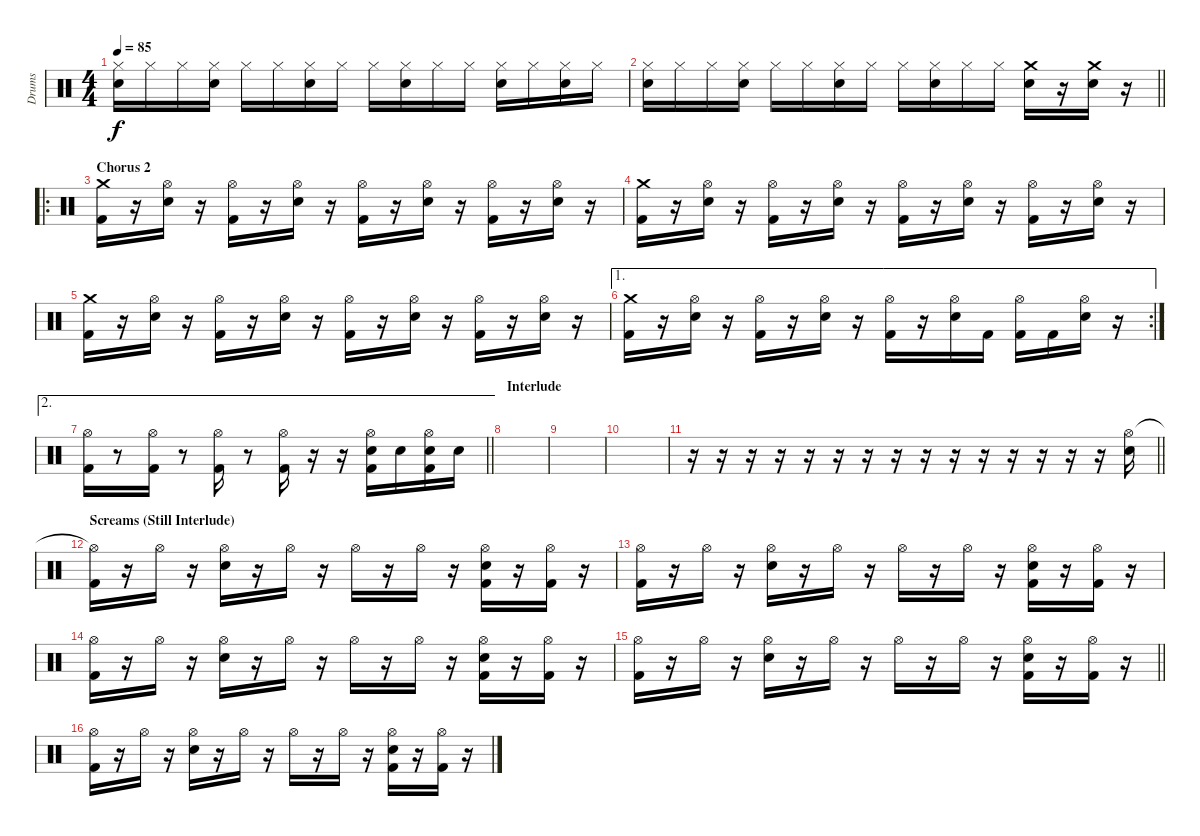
\track ("Drums" "Drums") {instrument percussion}
\staff {score}
\articulation defaults
\ts (4 4)
\tempo 85
\clef neutral
\ks c
("Hi-Hat (closed)" "Snare (hit) 2").16{dy f} "Hi-Hat (closed)".16 "Hi-Hat (closed)".16 ("Hi-Hat (closed)" "Snare (hit) 2").16 "Hi-Hat (closed)".16 "Hi-Hat (closed)".16 ("Hi-Hat (closed)" "Snare (hit) 2").16 "Hi-Hat (closed)".16 "Hi-Hat (closed)".16 ("Hi-Hat (closed)" "Snare (hit) 2").16 "Hi-Hat (closed)".16 "Hi-Hat (closed)".16 ("Hi-Hat (closed)" "Snare (hit) 2").16 "Hi-Hat (closed)".16 ("Hi-Hat (closed)" "Snare (hit) 2").16 "Hi-Hat (closed)".16 |
\barLineRight lightlight
("Hi-Hat (closed)" "Snare (hit) 2").16 "Hi-Hat (closed)".16 "Hi-Hat (closed)".16 ("Hi-Hat (closed)" "Snare (hit) 2").16 "Hi-Hat (closed)".16 "Hi-Hat (closed)".16 ("Hi-Hat (closed)" "Snare (hit) 2").16 "Hi-Hat (closed)".16 "Hi-Hat (closed)".16 ("Hi-Hat (closed)" "Snare (hit) 2").16 "Hi-Hat (closed)".16 "Hi-Hat (closed)".16 ("Crash medium (hit)" "Snare (hit) 2").16 r.16 ("Crash medium (hit)" "Snare (hit) 2").16 r.16 |
\ro
\section ("" "Chorus 2")
("Crash medium (hit)" "Kick (hit) 2").16 r.16 ("Hi-Hat (open)" "Snare (hit) 2").16 r.16 ("Hi-Hat (open)" "Kick (hit) 2").16 r.16 ("Hi-Hat (open)" "Snare (hit) 2").16 r.16 ("Hi-Hat (open)" "Kick (hit) 2").16 r.16 ("Hi-Hat (open)" "Snare (hit) 2").16 r.16 ("Hi-Hat (open)" "Kick (hit) 2").16 r.16 ("Hi-Hat (open)" "Snare (hit) 2").16 r.16 |
("Crash medium (hit)" "Kick (hit) 2").16 r.16 ("Hi-Hat (open)" "Snare (hit) 2").16 r.16 ("Hi-Hat (open)" "Kick (hit) 2").16 r.16 ("Hi-Hat (open)" "Snare (hit) 2").16 r.16 ("Hi-Hat (open)" "Kick (hit) 2").16 r.16 ("Hi-Hat (open)" "Snare (hit) 2").16 r.16 ("Hi-Hat (open)" "Kick (hit) 2").16 r.16 ("Hi-Hat (open)" "Snare (hit) 2").16 r.16 |
("Crash medium (hit)" "Kick (hit) 2").16 r.16 ("Hi-Hat (open)" "Snare (hit) 2").16 r.16 ("Hi-Hat (open)" "Kick (hit) 2").16 r.16 ("Hi-Hat (open)" "Snare (hit) 2").16 r.16 ("Hi-Hat (open)" "Kick (hit) 2").16 r.16 ("Hi-Hat (open)" "Snare (hit) 2").16 r.16 ("Hi-Hat (open)" "Kick (hit) 2").16 r.16 ("Hi-Hat (open)" "Snare (hit) 2").16 r.16 |
\ae 1
\rc 2
("Crash medium (hit)" "Kick (hit) 2").16 r.16 ("Hi-Hat (open)" "Snare (hit) 2").16 r.16 ("Hi-Hat (open)" "Kick (hit) 2").16 r.16 ("Hi-Hat (open)" "Snare (hit) 2").16 r.16 ("Hi-Hat (open)" "Kick (hit) 2").16 r.16 ("Hi-Hat (open)" "Snare (hit) 2").16 "Kick (hit) 2".16 ("Hi-Hat (open)" "Kick (hit) 2").16 "Kick (hit) 2".16 ("Hi-Hat (open)" "Snare (hit) 2").16 r.16 |
\ae 2
\barLineRight lightlight
("Hi-Hat (open)" "Kick (hit) 2").16 r.8 ("Hi-Hat (open)" "Kick (hit) 2").16 r.8 ("Hi-Hat (open)" "Kick (hit) 2").16 r.8 ("Hi-Hat (open)" "Kick (hit) 2").16 r.16 r.16 ("Hi-Hat (open)" "Snare (hit) 2" "Kick (hit) 2").16 "Snare (hit) 2".16 ("Hi-Hat (open)" "Snare (hit) 2" "Kick (hit) 2").16 "Snare (hit) 2".16 |
\section ("" "Interlude")
|
|
|
\barLineRight lightlight
r.16 r.16 r.16 r.16 r.16 r.16 r.16 r.16 r.16 r.16 r.16 r.16 r.16 r.16 r.16 ("Hi-Hat (open)" "Snare (hit) 2").16 |
\section ("" "Screams (Still Interlude)")
("Hi-Hat (open)"{t} "Kick (hit) 2").16 r.16 "Hi-Hat (open)".16 r.16 ("Hi-Hat (open)" "Snare (hit) 2").16 r.16 "Hi-Hat (open)".16 r.16 "Hi-Hat (open)".16 r.16 "Hi-Hat (open)".16 r.16 ("Hi-Hat (open)" "Snare (hit) 2" "Kick (hit) 2").16 r.16 ("Hi-Hat (open)" "Kick (hit) 2").16 r.16 |
("Hi-Hat (open)" "Kick (hit) 2").16 r.16 "Hi-Hat (open)".16 r.16 ("Hi-Hat (open)" "Snare (hit) 2").16 r.16 "Hi-Hat (open)".16 r.16 "Hi-Hat (open)".16 r.16 "Hi-Hat (open)".16 r.16 ("Hi-Hat (open)" "Snare (hit) 2" "Kick (hit) 2").16 r.16 ("Hi-Hat (open)" "Kick (hit) 2").16 r.16 |
("Hi-Hat (open)" "Kick (hit) 2").16 r.16 "Hi-Hat (open)".16 r.16 ("Hi-Hat (open)" "Snare (hit) 2").16 r.16 "Hi-Hat (open)".16 r.16 "Hi-Hat (open)".16 r.16 "Hi-Hat (open)".16 r.16 ("Hi-Hat (open)" "Snare (hit) 2" "Kick (hit) 2").16 r.16 ("Hi-Hat (open)" "Kick (hit) 2").16 r.16 |
\barLineRight lightlight
("Hi-Hat (open)" "Kick (hit) 2").16 r.16 "Hi-Hat (open)".16 r.16 ("Hi-Hat (open)" "Snare (hit) 2").16 r.16 "Hi-Hat (open)".16 r.16 "Hi-Hat (open)".16 r.16 "Hi-Hat (open)".16 r.16 ("Hi-Hat (open)" "Snare (hit) 2" "Kick (hit) 2").16 r.16 ("Hi-Hat (open)" "Kick (hit) 2").16 r.16 |
("Hi-Hat (open)" "Kick (hit) 2").16 r.16 "Hi-Hat (open)".16 r.16 ("Hi-Hat (open)" "Snare (hit) 2").16 r.16 "Hi-Hat (open)".16 r.16 "Hi-Hat (open)".16 r.16 "Hi-Hat (open)".16 r.16 ("Hi-Hat (open)" "Snare (hit) 2" "Kick (hit) 2").16 r.16 ("Hi-Hat (open)" "Kick (hit) 2").16 r.16
